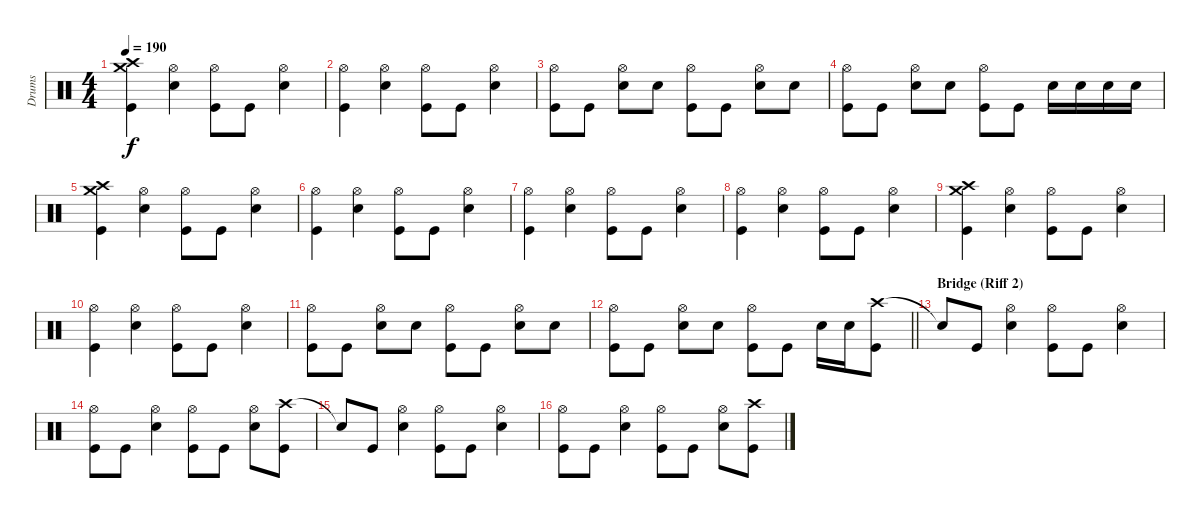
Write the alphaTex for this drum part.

\track ("Drums" "Drums") {instrument percussion}
\staff {score}
\articulation defaults
\ts (4 4)
\tempo 190
\clef neutral
\ks c
("Crash high (hit)" "Crash medium (hit)" "Kick (hit)").4{dy f} ("Hi-Hat (open)" "Snare (hit) 2").4 ("Hi-Hat (open)" "Kick (hit)").8 "Kick (hit)".8 ("Hi-Hat (open)" "Snare (hit) 2").4 |
("Hi-Hat (open)" "Kick (hit)").4 ("Hi-Hat (open)" "Snare (hit) 2").4 ("Hi-Hat (open)" "Kick (hit)").8 "Kick (hit)".8 ("Hi-Hat (open)" "Snare (hit) 2").4 |
("Hi-Hat (open)" "Kick (hit)").8 "Kick (hit)".8 ("Hi-Hat (open)" "Snare (hit) 2").8 "Snare (hit) 2".8 ("Hi-Hat (open)" "Kick (hit)").8 "Kick (hit)".8 ("Hi-Hat (open)" "Snare (hit) 2").8 "Snare (hit) 2".8 |
("Hi-Hat (open)" "Kick (hit)").8 "Kick (hit)".8 ("Hi-Hat (open)" "Snare (hit) 2").8 "Snare (hit) 2".8 ("Hi-Hat (open)" "Kick (hit)").8 "Kick (hit)".8 "Snare (hit) 2".16 "Snare (hit) 2".16 "Snare (hit) 2".16 "Snare (hit) 2".16 |
("Crash high (hit)" "Crash medium (hit)" "Kick (hit)").4 ("Hi-Hat (open)" "Snare (hit) 2").4 ("Hi-Hat (open)" "Kick (hit)").8 "Kick (hit)".8 ("Hi-Hat (open)" "Snare (hit) 2").4 |
("Hi-Hat (open)" "Kick (hit)").4 ("Hi-Hat (open)" "Snare (hit) 2").4 ("Hi-Hat (open)" "Kick (hit)").8 "Kick (hit)".8 ("Hi-Hat (open)" "Snare (hit) 2").4 |
("Hi-Hat (open)" "Kick (hit)").4 ("Hi-Hat (open)" "Snare (hit) 2").4 ("Hi-Hat (open)" "Kick (hit)").8 "Kick (hit)".8 ("Hi-Hat (open)" "Snare (hit) 2").4 |
("Hi-Hat (open)" "Kick (hit)").4 ("Hi-Hat (open)" "Snare (hit) 2").4 ("Hi-Hat (open)" "Kick (hit)").8 "Kick (hit)".8 ("Hi-Hat (open)" "Snare (hit) 2").4 |
("Crash high (hit)" "Crash medium (hit)" "Kick (hit)").4 ("Hi-Hat (open)" "Snare (hit) 2").4 ("Hi-Hat (open)" "Kick (hit)").8 "Kick (hit)".8 ("Hi-Hat (open)" "Snare (hit) 2").4 |
("Hi-Hat (open)" "Kick (hit)").4 ("Hi-Hat (open)" "Snare (hit) 2").4 ("Hi-Hat (open)" "Kick (hit)").8 "Kick (hit)".8 ("Hi-Hat (open)" "Snare (hit) 2").4 |
("Hi-Hat (open)" "Kick (hit)").8 "Kick (hit)".8 ("Hi-Hat (open)" "Snare (hit) 2").8 "Snare (hit) 2".8 ("Hi-Hat (open)" "Kick (hit)").8 "Kick (hit)".8 ("Hi-Hat (open)" "Snare (hit) 2").8 "Snare (hit) 2".8 |
\barLineRight lightlight
("Hi-Hat (open)" "Kick (hit)").8 "Kick (hit)".8 ("Hi-Hat (open)" "Snare (hit) 2").8 "Snare (hit) 2".8 ("Hi-Hat (open)" "Kick (hit)").8 "Kick (hit)".8 "Snare (hit) 2".16 "Snare (hit) 2".16 ("Crash high (hit)" "Kick (hit)").8 |
\section ("" "Bridge (Riff 2)")
"Snare (hit)"{t}.8 "Kick (hit)".8 ("Hi-Hat (open)" "Snare (hit) 2").4 ("Hi-Hat (open)" "Kick (hit)").8 "Kick (hit)".8 ("Hi-Hat (open)" "Snare (hit) 2").4 |
("Hi-Hat (open)" "Kick (hit)").8 "Kick (hit)".8 ("Hi-Hat (open)" "Snare (hit) 2").4 ("Hi-Hat (open)" "Kick (hit)").8 "Kick (hit)".8 ("Hi-Hat (open)" "Snare (hit) 2").8 ("Crash high (hit)" "Kick (hit)").8 |
"Snare (hit)"{t}.8 "Kick (hit)".8 ("Hi-Hat (open)" "Snare (hit) 2").4 ("Hi-Hat (open)" "Kick (hit)").8 "Kick (hit)".8 ("Hi-Hat (open)" "Snare (hit) 2").4 |
("Hi-Hat (open)" "Kick (hit)").8 "Kick (hit)".8 ("Hi-Hat (open)" "Snare (hit) 2").4 ("Hi-Hat (open)" "Kick (hit)").8 "Kick (hit)".8 ("Hi-Hat (open)" "Snare (hit) 2").8 ("Crash high (hit)" "Kick (hit)").8
